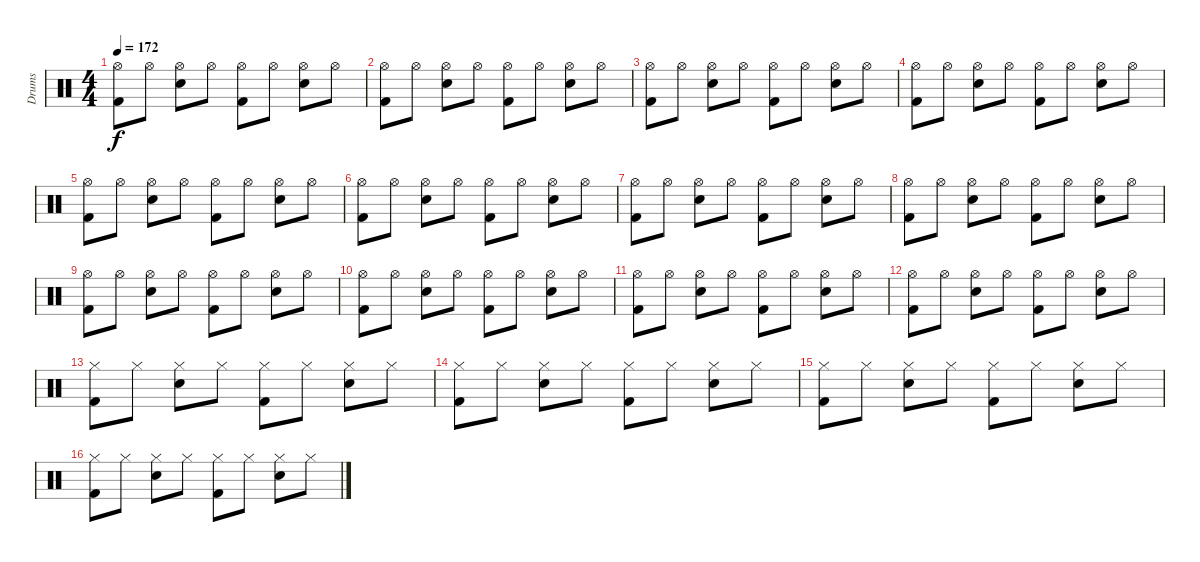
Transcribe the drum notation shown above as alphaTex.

\track ("Drums" "Drums") {instrument percussion}
\staff {score}
\articulation defaults
\ts (4 4)
\tempo 172
\clef neutral
\ks c
("Kick (hit) 2" "Hi-Hat (open)").8{dy f} "Hi-Hat (open)".8 ("Electric Snare (hit)" "Hi-Hat (open)").8 "Hi-Hat (open)".8 ("Kick (hit) 2" "Hi-Hat (open)").8 "Hi-Hat (open)".8 ("Electric Snare (hit)" "Hi-Hat (open)").8 "Hi-Hat (open)".8 |
("Kick (hit) 2" "Hi-Hat (open)").8 "Hi-Hat (open)".8 ("Electric Snare (hit)" "Hi-Hat (open)").8 "Hi-Hat (open)".8 ("Kick (hit) 2" "Hi-Hat (open)").8 "Hi-Hat (open)".8 ("Electric Snare (hit)" "Hi-Hat (open)").8 "Hi-Hat (open)".8 |
("Kick (hit) 2" "Hi-Hat (open)").8 "Hi-Hat (open)".8 ("Electric Snare (hit)" "Hi-Hat (open)").8 "Hi-Hat (open)".8 ("Kick (hit) 2" "Hi-Hat (open)").8 "Hi-Hat (open)".8 ("Electric Snare (hit)" "Hi-Hat (open)").8 "Hi-Hat (open)".8 |
("Kick (hit) 2" "Hi-Hat (open)").8 "Hi-Hat (open)".8 ("Electric Snare (hit)" "Hi-Hat (open)").8 "Hi-Hat (open)".8 ("Kick (hit) 2" "Hi-Hat (open)").8 "Hi-Hat (open)".8 ("Electric Snare (hit)" "Hi-Hat (open)").8 "Hi-Hat (open)".8 |
("Kick (hit) 2" "Hi-Hat (open)").8 "Hi-Hat (open)".8 ("Electric Snare (hit)" "Hi-Hat (open)").8 "Hi-Hat (open)".8 ("Kick (hit) 2" "Hi-Hat (open)").8 "Hi-Hat (open)".8 ("Electric Snare (hit)" "Hi-Hat (open)").8 "Hi-Hat (open)".8 |
("Kick (hit) 2" "Hi-Hat (open)").8 "Hi-Hat (open)".8 ("Electric Snare (hit)" "Hi-Hat (open)").8 "Hi-Hat (open)".8 ("Kick (hit) 2" "Hi-Hat (open)").8 "Hi-Hat (open)".8 ("Electric Snare (hit)" "Hi-Hat (open)").8 "Hi-Hat (open)".8 |
("Kick (hit) 2" "Hi-Hat (open)").8 "Hi-Hat (open)".8 ("Electric Snare (hit)" "Hi-Hat (open)").8 "Hi-Hat (open)".8 ("Kick (hit) 2" "Hi-Hat (open)").8 "Hi-Hat (open)".8 ("Electric Snare (hit)" "Hi-Hat (open)").8 "Hi-Hat (open)".8 |
("Kick (hit) 2" "Hi-Hat (open)").8 "Hi-Hat (open)".8 ("Electric Snare (hit)" "Hi-Hat (open)").8 "Hi-Hat (open)".8 ("Kick (hit) 2" "Hi-Hat (open)").8 "Hi-Hat (open)".8 ("Electric Snare (hit)" "Hi-Hat (open)").8 "Hi-Hat (open)".8 |
("Kick (hit) 2" "Hi-Hat (open)").8 "Hi-Hat (open)".8 ("Electric Snare (hit)" "Hi-Hat (open)").8 "Hi-Hat (open)".8 ("Kick (hit) 2" "Hi-Hat (open)").8 "Hi-Hat (open)".8 ("Electric Snare (hit)" "Hi-Hat (open)").8 "Hi-Hat (open)".8 |
("Kick (hit) 2" "Hi-Hat (open)").8 "Hi-Hat (open)".8 ("Electric Snare (hit)" "Hi-Hat (open)").8 "Hi-Hat (open)".8 ("Kick (hit) 2" "Hi-Hat (open)").8 "Hi-Hat (open)".8 ("Electric Snare (hit)" "Hi-Hat (open)").8 "Hi-Hat (open)".8 |
("Kick (hit) 2" "Hi-Hat (open)").8 "Hi-Hat (open)".8 ("Electric Snare (hit)" "Hi-Hat (open)").8 "Hi-Hat (open)".8 ("Kick (hit) 2" "Hi-Hat (open)").8 "Hi-Hat (open)".8 ("Electric Snare (hit)" "Hi-Hat (open)").8 "Hi-Hat (open)".8 |
("Kick (hit) 2" "Hi-Hat (open)").8 "Hi-Hat (open)".8 ("Electric Snare (hit)" "Hi-Hat (open)").8 "Hi-Hat (open)".8 ("Kick (hit) 2" "Hi-Hat (open)").8 "Hi-Hat (open)".8 ("Electric Snare (hit)" "Hi-Hat (open)").8 "Hi-Hat (open)".8 |
("Kick (hit) 2" "Hi-Hat (closed)").8 "Hi-Hat (closed)".8 ("Electric Snare (hit)" "Hi-Hat (closed)").8 "Hi-Hat (closed)".8 ("Kick (hit) 2" "Hi-Hat (closed)").8 "Hi-Hat (closed)".8 ("Electric Snare (hit)" "Hi-Hat (closed)").8 "Hi-Hat (closed)".8 |
("Kick (hit) 2" "Hi-Hat (closed)").8 "Hi-Hat (closed)".8 ("Electric Snare (hit)" "Hi-Hat (closed)").8 "Hi-Hat (closed)".8 ("Kick (hit) 2" "Hi-Hat (closed)").8 "Hi-Hat (closed)".8 ("Electric Snare (hit)" "Hi-Hat (closed)").8 "Hi-Hat (closed)".8 |
("Kick (hit) 2" "Hi-Hat (closed)").8 "Hi-Hat (closed)".8 ("Electric Snare (hit)" "Hi-Hat (closed)").8 "Hi-Hat (closed)".8 ("Kick (hit) 2" "Hi-Hat (closed)").8 "Hi-Hat (closed)".8 ("Electric Snare (hit)" "Hi-Hat (closed)").8 "Hi-Hat (closed)".8 |
("Kick (hit) 2" "Hi-Hat (closed)").8 "Hi-Hat (closed)".8 ("Electric Snare (hit)" "Hi-Hat (closed)").8 "Hi-Hat (closed)".8 ("Kick (hit) 2" "Hi-Hat (closed)").8 "Hi-Hat (closed)".8 ("Electric Snare (hit)" "Hi-Hat (closed)").8 "Hi-Hat (closed)".8
